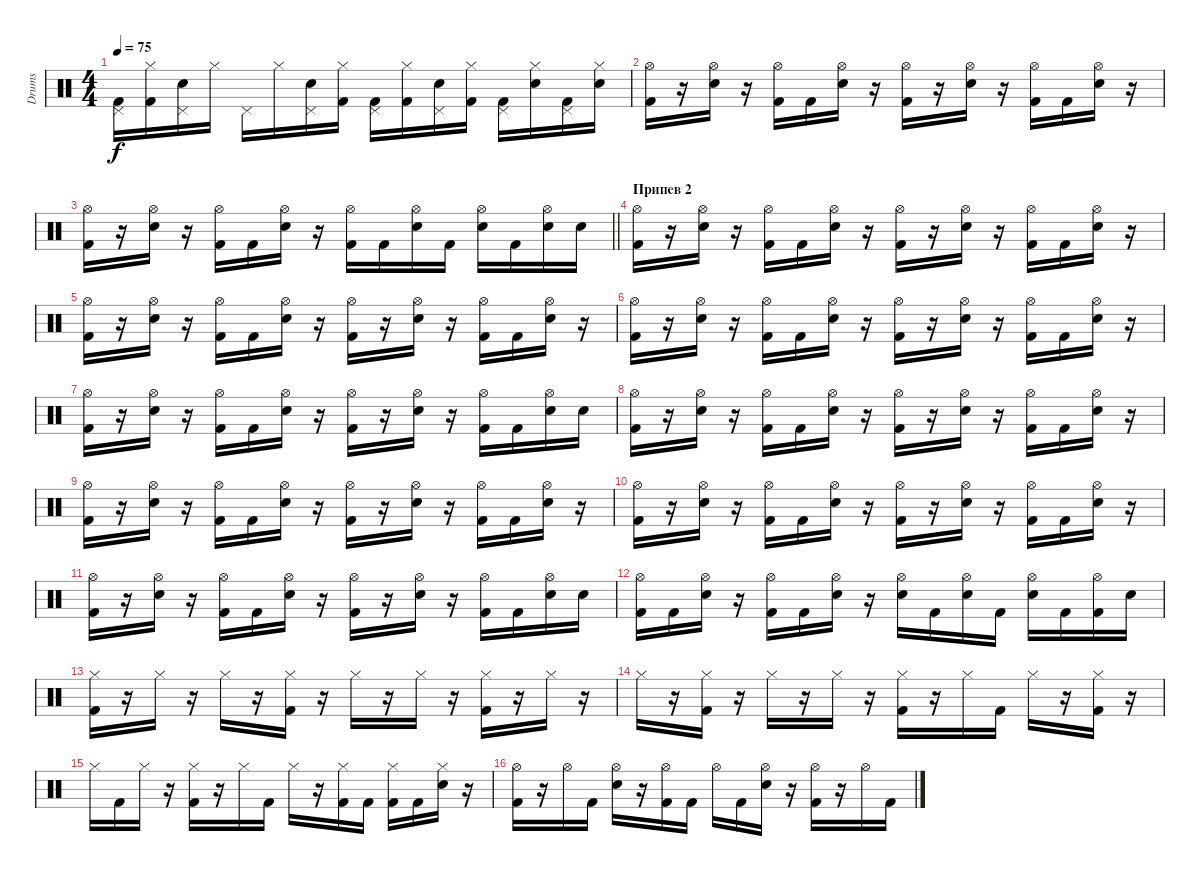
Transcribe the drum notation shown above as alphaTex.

\track ("Drums" "Drums") {instrument percussion}
\staff {score}
\articulation defaults
\ts (4 4)
\tempo 75
\clef neutral
\ks c
("Kick (hit) 2" "Pedal Hi-Hat (hit)").16{dy f} ("Kick (hit) 2" "Hi-Hat (closed)").16 ("Electric Snare (hit)" "Pedal Hi-Hat (hit)").16 "Hi-Hat (closed)".16 "Pedal Hi-Hat (hit)".16 "Hi-Hat (closed)".16 ("Electric Snare (hit)" "Pedal Hi-Hat (hit)").16 ("Kick (hit) 2" "Hi-Hat (closed)").16 ("Kick (hit) 2" "Pedal Hi-Hat (hit)").16 ("Kick (hit) 2" "Hi-Hat (closed)").16 ("Electric Snare (hit)" "Pedal Hi-Hat (hit)").16 ("Kick (hit) 2" "Hi-Hat (closed)").16 ("Kick (hit) 2" "Pedal Hi-Hat (hit)").16 ("Electric Snare (hit)" "Hi-Hat (closed)").16 ("Kick (hit) 2" "Pedal Hi-Hat (hit)").16 ("Electric Snare (hit)" "Hi-Hat (closed)").16 |
("Kick (hit) 2" "Hi-Hat (open)").16 r.16 ("Electric Snare (hit)" "Hi-Hat (open)").16 r.16 ("Kick (hit) 2" "Hi-Hat (open)").16 "Kick (hit) 2".16 ("Electric Snare (hit)" "Hi-Hat (open)").16 r.16 ("Kick (hit) 2" "Hi-Hat (open)").16 r.16 ("Electric Snare (hit)" "Hi-Hat (open)").16 r.16 ("Kick (hit) 2" "Hi-Hat (open)").16 "Kick (hit) 2".16 ("Electric Snare (hit)" "Hi-Hat (open)").16 r.16 |
\barLineRight lightlight
("Kick (hit) 2" "Hi-Hat (open)").16 r.16 ("Electric Snare (hit)" "Hi-Hat (open)").16 r.16 ("Kick (hit) 2" "Hi-Hat (open)").16 "Kick (hit) 2".16 ("Electric Snare (hit)" "Hi-Hat (open)").16 r.16 ("Kick (hit) 2" "Hi-Hat (open)").16 "Kick (hit) 2".16 ("Electric Snare (hit)" "Hi-Hat (open)").16 "Kick (hit) 2".16 ("Electric Snare (hit)" "Hi-Hat (open)").16 "Kick (hit) 2".16 ("Electric Snare (hit)" "Hi-Hat (open)").16 "Electric Snare (hit)".16 |
\section ("" "Припев 2")
("Kick (hit) 2" "Hi-Hat (open)").16 r.16 ("Electric Snare (hit)" "Hi-Hat (open)").16 r.16 ("Kick (hit) 2" "Hi-Hat (open)").16 "Kick (hit) 2".16 ("Electric Snare (hit)" "Hi-Hat (open)").16 r.16 ("Kick (hit) 2" "Hi-Hat (open)").16 r.16 ("Electric Snare (hit)" "Hi-Hat (open)").16 r.16 ("Kick (hit) 2" "Hi-Hat (open)").16 "Kick (hit) 2".16 ("Electric Snare (hit)" "Hi-Hat (open)").16 r.16 |
("Kick (hit) 2" "Hi-Hat (open)").16 r.16 ("Electric Snare (hit)" "Hi-Hat (open)").16 r.16 ("Kick (hit) 2" "Hi-Hat (open)").16 "Kick (hit) 2".16 ("Electric Snare (hit)" "Hi-Hat (open)").16 r.16 ("Kick (hit) 2" "Hi-Hat (open)").16 r.16 ("Electric Snare (hit)" "Hi-Hat (open)").16 r.16 ("Kick (hit) 2" "Hi-Hat (open)").16 "Kick (hit) 2".16 ("Electric Snare (hit)" "Hi-Hat (open)").16 r.16 |
("Kick (hit) 2" "Hi-Hat (open)").16 r.16 ("Electric Snare (hit)" "Hi-Hat (open)").16 r.16 ("Kick (hit) 2" "Hi-Hat (open)").16 "Kick (hit) 2".16 ("Electric Snare (hit)" "Hi-Hat (open)").16 r.16 ("Kick (hit) 2" "Hi-Hat (open)").16 r.16 ("Electric Snare (hit)" "Hi-Hat (open)").16 r.16 ("Kick (hit) 2" "Hi-Hat (open)").16 "Kick (hit) 2".16 ("Electric Snare (hit)" "Hi-Hat (open)").16 r.16 |
("Kick (hit) 2" "Hi-Hat (open)").16 r.16 ("Electric Snare (hit)" "Hi-Hat (open)").16 r.16 ("Kick (hit) 2" "Hi-Hat (open)").16 "Kick (hit) 2".16 ("Electric Snare (hit)" "Hi-Hat (open)").16 r.16 ("Kick (hit) 2" "Hi-Hat (open)").16 r.16 ("Electric Snare (hit)" "Hi-Hat (open)").16 r.16 ("Kick (hit) 2" "Hi-Hat (open)").16 "Kick (hit) 2".16 ("Electric Snare (hit)" "Hi-Hat (open)").16 "Electric Snare (hit)".16 |
("Kick (hit) 2" "Hi-Hat (open)").16 r.16 ("Electric Snare (hit)" "Hi-Hat (open)").16 r.16 ("Kick (hit) 2" "Hi-Hat (open)").16 "Kick (hit) 2".16 ("Electric Snare (hit)" "Hi-Hat (open)").16 r.16 ("Kick (hit) 2" "Hi-Hat (open)").16 r.16 ("Electric Snare (hit)" "Hi-Hat (open)").16 r.16 ("Kick (hit) 2" "Hi-Hat (open)").16 "Kick (hit) 2".16 ("Electric Snare (hit)" "Hi-Hat (open)").16 r.16 |
("Kick (hit) 2" "Hi-Hat (open)").16 r.16 ("Electric Snare (hit)" "Hi-Hat (open)").16 r.16 ("Kick (hit) 2" "Hi-Hat (open)").16 "Kick (hit) 2".16 ("Electric Snare (hit)" "Hi-Hat (open)").16 r.16 ("Kick (hit) 2" "Hi-Hat (open)").16 r.16 ("Electric Snare (hit)" "Hi-Hat (open)").16 r.16 ("Kick (hit) 2" "Hi-Hat (open)").16 "Kick (hit) 2".16 ("Electric Snare (hit)" "Hi-Hat (open)").16 r.16 |
("Kick (hit) 2" "Hi-Hat (open)").16 r.16 ("Electric Snare (hit)" "Hi-Hat (open)").16 r.16 ("Kick (hit) 2" "Hi-Hat (open)").16 "Kick (hit) 2".16 ("Electric Snare (hit)" "Hi-Hat (open)").16 r.16 ("Kick (hit) 2" "Hi-Hat (open)").16 r.16 ("Electric Snare (hit)" "Hi-Hat (open)").16 r.16 ("Kick (hit) 2" "Hi-Hat (open)").16 "Kick (hit) 2".16 ("Electric Snare (hit)" "Hi-Hat (open)").16 r.16 |
("Kick (hit) 2" "Hi-Hat (open)").16 r.16 ("Electric Snare (hit)" "Hi-Hat (open)").16 r.16 ("Kick (hit) 2" "Hi-Hat (open)").16 "Kick (hit) 2".16 ("Electric Snare (hit)" "Hi-Hat (open)").16 r.16 ("Kick (hit) 2" "Hi-Hat (open)").16 r.16 ("Electric Snare (hit)" "Hi-Hat (open)").16 r.16 ("Kick (hit) 2" "Hi-Hat (open)").16 "Kick (hit) 2".16 ("Electric Snare (hit)" "Hi-Hat (open)").16 "Electric Snare (hit)".16 |
("Kick (hit) 2" "Hi-Hat (open)").16 "Kick (hit) 2".16 ("Electric Snare (hit)" "Hi-Hat (open)").16 r.16 ("Kick (hit) 2" "Hi-Hat (open)").16 "Kick (hit) 2".16 ("Electric Snare (hit)" "Hi-Hat (open)").16 r.16 ("Electric Snare (hit)" "Hi-Hat (open)").16 "Kick (hit) 2".16 ("Electric Snare (hit)" "Hi-Hat (open)").16 "Kick (hit) 2".16 ("Electric Snare (hit)" "Hi-Hat (open)").16 "Kick (hit) 2".16 ("Kick (hit) 2" "Hi-Hat (open)").16 "Electric Snare (hit)".16 |
("Kick (hit) 2" "Hi-Hat (closed)").16 r.16 "Hi-Hat (closed)".16 r.16 "Hi-Hat (closed)".16 r.16 ("Kick (hit) 2" "Hi-Hat (closed)").16 r.16 "Hi-Hat (closed)".16 r.16 "Hi-Hat (closed)".16 r.16 ("Kick (hit) 2" "Hi-Hat (closed)").16 r.16 "Hi-Hat (closed)".16 r.16 |
"Hi-Hat (closed)".16 r.16 ("Kick (hit) 2" "Hi-Hat (closed)").16 r.16 "Hi-Hat (closed)".16 r.16 "Hi-Hat (closed)".16 r.16 ("Kick (hit) 2" "Hi-Hat (closed)").16 r.16 "Hi-Hat (closed)".16 "Kick (hit) 2".16 "Hi-Hat (closed)".16 r.16 ("Kick (hit) 2" "Hi-Hat (closed)").16 r.16 |
"Hi-Hat (closed)".16 "Kick (hit) 2".16 "Hi-Hat (closed)".16 r.16 ("Kick (hit) 2" "Hi-Hat (closed)").16 r.16 "Hi-Hat (closed)".16 "Kick (hit) 2".16 "Hi-Hat (closed)".16 r.16 ("Kick (hit) 2" "Hi-Hat (closed)").16 "Kick (hit) 2".16 ("Kick (hit) 2" "Hi-Hat (closed)").16 "Kick (hit) 2".16 ("Electric Snare (hit)" "Hi-Hat (closed)").16 r.16 |
("Kick (hit) 2" "Hi-Hat (open)").16 r.16 "Hi-Hat (open)".16 "Kick (hit) 2".16 ("Electric Snare (hit)" "Hi-Hat (open)").16 r.16 ("Kick (hit) 2" "Hi-Hat (open)").16 "Kick (hit) 2".16 "Hi-Hat (open)".16 "Kick (hit) 2".16 ("Electric Snare (hit)" "Hi-Hat (open)").16 r.16 ("Kick (hit) 2" "Hi-Hat (open)").16 r.16 "Hi-Hat (open)".16 "Kick (hit) 2".16
